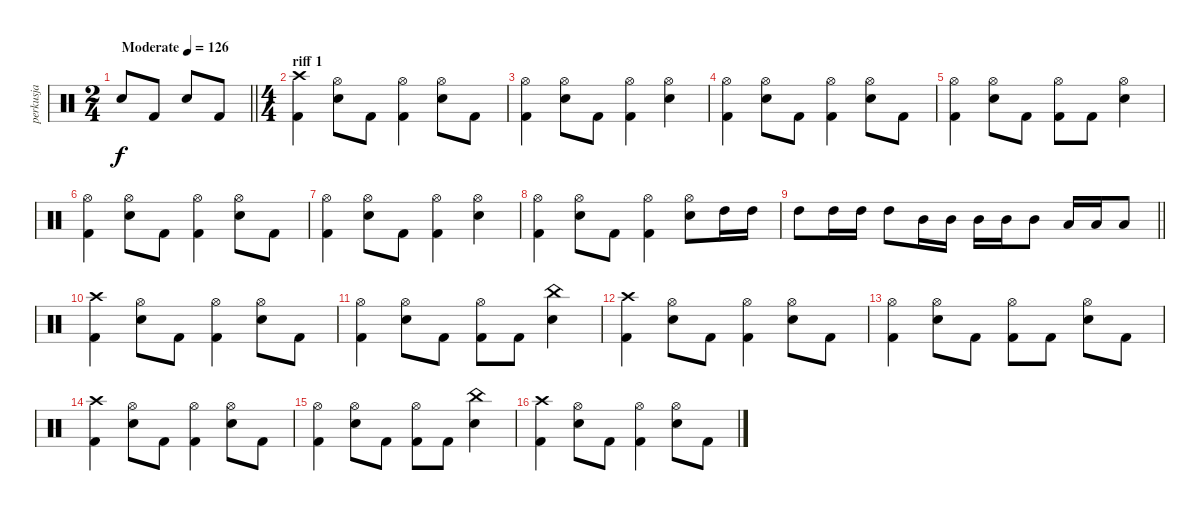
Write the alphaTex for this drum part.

\track ("perkusja" "perkusja") {instrument percussion}
\staff {score}
\articulation defaults
\ts (2 4)
\tempo (126 "Moderate")
\clef neutral
\barLineRight lightlight
\ks c "Electric Snare (hit)".8{dy f} "Kick (hit) 2".8 "Electric Snare (hit)".8 "Kick (hit) 2".8
|
\ts (4 4)
\section ("" "riff 1")
("Crash high (hit)" "Kick (hit) 2").4 ("Hi-Hat (open)" "Electric Snare (hit)").8 "Kick (hit) 2".8 ("Hi-Hat (open)" "Kick (hit) 2").4 ("Hi-Hat (open)" "Electric Snare (hit)").8 "Kick (hit) 2".8 |
("Hi-Hat (open)" "Kick (hit) 2").4 ("Hi-Hat (open)" "Electric Snare (hit)").8 "Kick (hit) 2".8 ("Hi-Hat (open)" "Kick (hit) 2").4 ("Hi-Hat (open)" "Electric Snare (hit)").4 |
("Hi-Hat (open)" "Kick (hit) 2").4 ("Hi-Hat (open)" "Electric Snare (hit)").8 "Kick (hit) 2".8 ("Hi-Hat (open)" "Kick (hit) 2").4 ("Hi-Hat (open)" "Electric Snare (hit)").8 "Kick (hit) 2".8 |
("Hi-Hat (open)" "Kick (hit) 2").4 ("Hi-Hat (open)" "Electric Snare (hit)").8 "Kick (hit) 2".8 ("Hi-Hat (open)" "Kick (hit) 2").8 "Kick (hit) 2".8 ("Hi-Hat (open)" "Electric Snare (hit)").4 |
("Hi-Hat (open)" "Kick (hit) 2").4 ("Hi-Hat (open)" "Electric Snare (hit)").8 "Kick (hit) 2".8 ("Hi-Hat (open)" "Kick (hit) 2").4 ("Hi-Hat (open)" "Electric Snare (hit)").8 "Kick (hit) 2".8 |
("Hi-Hat (open)" "Kick (hit) 2").4 ("Hi-Hat (open)" "Electric Snare (hit)").8 "Kick (hit) 2".8 ("Hi-Hat (open)" "Kick (hit) 2").4 ("Hi-Hat (open)" "Electric Snare (hit)").4 |
("Hi-Hat (open)" "Kick (hit) 2").4 ("Hi-Hat (open)" "Electric Snare (hit)").8 "Kick (hit) 2".8 ("Hi-Hat (open)" "Kick (hit) 2").4 ("Hi-Hat (open)" "Electric Snare (hit)").8 "High Tom (hit)".16 "High Tom (hit)".16 |
\barLineRight lightlight "High Tom (hit)".8 "High Tom (hit)".16 "High Tom (hit)".16 "High Tom (hit)".8 "Mid Tom (hit)".16 "Mid Tom (hit)".16 "Mid Tom (hit)".16 "Mid Tom (hit)".16 "Mid Tom (hit)".8 "Low Tom (hit)".16 "Low Tom (hit)".16 "Low Tom (hit)".8
|
("Crash high (hit)" "Kick (hit) 2").4 ("Hi-Hat (open)" "Electric Snare (hit)").8 "Kick (hit) 2".8 ("Hi-Hat (open)" "Kick (hit) 2").4 ("Hi-Hat (open)" "Electric Snare (hit)").8 "Kick (hit) 2".8 |
("Hi-Hat (open)" "Kick (hit) 2").4 ("Hi-Hat (open)" "Electric Snare (hit)").8 "Kick (hit) 2".8 ("Hi-Hat (open)" "Kick (hit) 2").8 "Kick (hit) 2".8 ("China (hit)" "Electric Snare (hit)").4 |
("Crash high (hit)" "Kick (hit) 2").4 ("Hi-Hat (open)" "Electric Snare (hit)").8 "Kick (hit) 2".8 ("Hi-Hat (open)" "Kick (hit) 2").4 ("Hi-Hat (open)" "Electric Snare (hit)").8 "Kick (hit) 2".8 |
("Hi-Hat (open)" "Kick (hit) 2").4 ("Hi-Hat (open)" "Electric Snare (hit)").8 "Kick (hit) 2".8 ("Hi-Hat (open)" "Kick (hit) 2").8 "Kick (hit) 2".8 ("Hi-Hat (open)" "Electric Snare (hit)").8 "Kick (hit) 2".8 |
("Crash high (hit)" "Kick (hit) 2").4 ("Hi-Hat (open)" "Electric Snare (hit)").8 "Kick (hit) 2".8 ("Hi-Hat (open)" "Kick (hit) 2").4 ("Hi-Hat (open)" "Electric Snare (hit)").8 "Kick (hit) 2".8 |
("Hi-Hat (open)" "Kick (hit) 2").4 ("Hi-Hat (open)" "Electric Snare (hit)").8 "Kick (hit) 2".8 ("Hi-Hat (open)" "Kick (hit) 2").8 "Kick (hit) 2".8 ("China (hit)" "Electric Snare (hit)").4 |
("Crash high (hit)" "Kick (hit) 2").4 ("Hi-Hat (open)" "Electric Snare (hit)").8 "Kick (hit) 2".8 ("Hi-Hat (open)" "Kick (hit) 2").4 ("Hi-Hat (open)" "Electric Snare (hit)").8 "Kick (hit) 2".8
